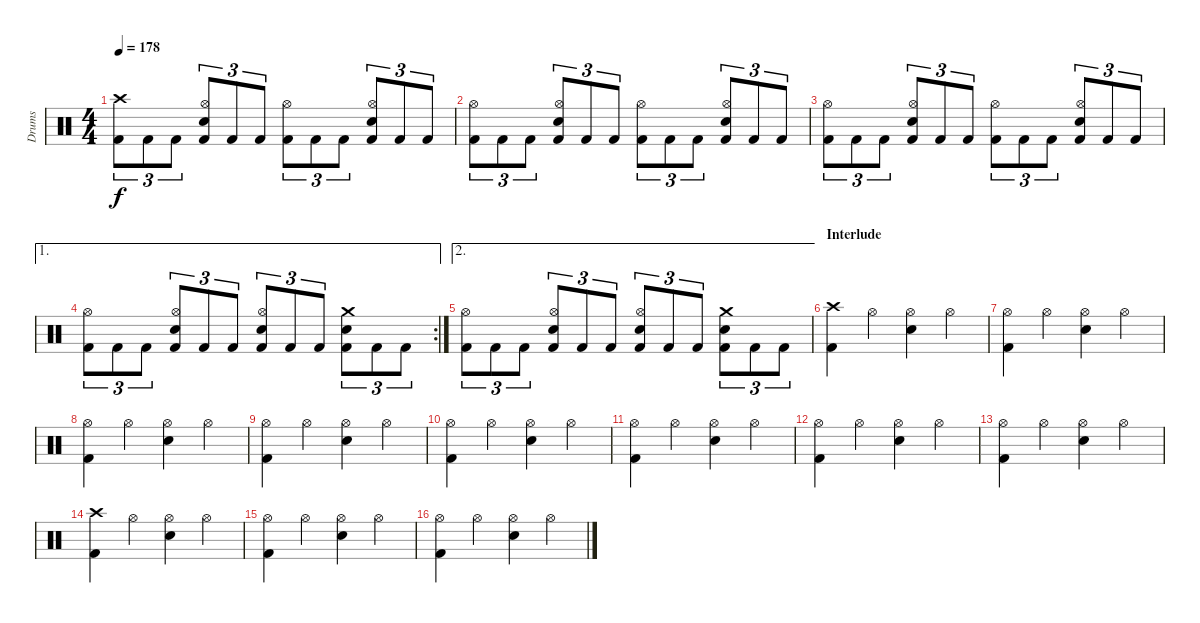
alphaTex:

\track ("Drums" "Drums") {instrument percussion}
\staff {score}
\articulation defaults
\ts (4 4)
\tempo 178
\clef neutral
\ks c
("Crash high (hit)" "Kick (hit) 2").8{tu (3 2) dy f} "Kick (hit) 2".8{tu (3 2)} "Kick (hit) 2".8{tu (3 2)} ("Hi-Hat (open)" "Electric Snare (hit)" "Kick (hit) 2").8{tu (3 2)} "Kick (hit) 2".8{tu (3 2)} "Kick (hit) 2".8{tu (3 2)} ("Hi-Hat (open)" "Kick (hit) 2").8{tu (3 2)} "Kick (hit) 2".8{tu (3 2)} "Kick (hit) 2".8{tu (3 2)} ("Hi-Hat (open)" "Electric Snare (hit)" "Kick (hit) 2").8{tu (3 2)} "Kick (hit) 2".8{tu (3 2)} "Kick (hit) 2".8{tu (3 2)} |
("Hi-Hat (open)" "Kick (hit) 2").8{tu (3 2)} "Kick (hit) 2".8{tu (3 2)} "Kick (hit) 2".8{tu (3 2)} ("Hi-Hat (open)" "Electric Snare (hit)" "Kick (hit) 2").8{tu (3 2)} "Kick (hit) 2".8{tu (3 2)} "Kick (hit) 2".8{tu (3 2)} ("Hi-Hat (open)" "Kick (hit) 2").8{tu (3 2)} "Kick (hit) 2".8{tu (3 2)} "Kick (hit) 2".8{tu (3 2)} ("Hi-Hat (open)" "Electric Snare (hit)" "Kick (hit) 2").8{tu (3 2)} "Kick (hit) 2".8{tu (3 2)} "Kick (hit) 2".8{tu (3 2)} |
("Hi-Hat (open)" "Kick (hit) 2").8{tu (3 2)} "Kick (hit) 2".8{tu (3 2)} "Kick (hit) 2".8{tu (3 2)} ("Hi-Hat (open)" "Electric Snare (hit)" "Kick (hit) 2").8{tu (3 2)} "Kick (hit) 2".8{tu (3 2)} "Kick (hit) 2".8{tu (3 2)} ("Hi-Hat (open)" "Kick (hit) 2").8{tu (3 2)} "Kick (hit) 2".8{tu (3 2)} "Kick (hit) 2".8{tu (3 2)} ("Hi-Hat (open)" "Electric Snare (hit)" "Kick (hit) 2").8{tu (3 2)} "Kick (hit) 2".8{tu (3 2)} "Kick (hit) 2".8{tu (3 2)} |
\ae 1
\rc 2
("Hi-Hat (open)" "Kick (hit) 2").8{tu (3 2)} "Kick (hit) 2".8{tu (3 2)} "Kick (hit) 2".8{tu (3 2)} ("Hi-Hat (open)" "Electric Snare (hit)" "Kick (hit) 2").8{tu (3 2)} "Kick (hit) 2".8{tu (3 2)} "Kick (hit) 2".8{tu (3 2)} ("Hi-Hat (open)" "Electric Snare (hit)" "Kick (hit) 2").8{tu (3 2)} "Kick (hit) 2".8{tu (3 2)} "Kick (hit) 2".8{tu (3 2)} ("Crash medium (hit)" "Electric Snare (hit)" "Kick (hit) 2").8{tu (3 2)} "Kick (hit) 2".8{tu (3 2)} "Kick (hit) 2".8{tu (3 2)} |
\ae 2
("Hi-Hat (open)" "Kick (hit) 2").8{tu (3 2)} "Kick (hit) 2".8{tu (3 2)} "Kick (hit) 2".8{tu (3 2)} ("Hi-Hat (open)" "Electric Snare (hit)" "Kick (hit) 2").8{tu (3 2)} "Kick (hit) 2".8{tu (3 2)} "Kick (hit) 2".8{tu (3 2)} ("Hi-Hat (open)" "Electric Snare (hit)" "Kick (hit) 2").8{tu (3 2)} "Kick (hit) 2".8{tu (3 2)} "Kick (hit) 2".8{tu (3 2)} ("Crash medium (hit)" "Electric Snare (hit)" "Kick (hit) 2").8{tu (3 2)} "Kick (hit) 2".8{tu (3 2)} "Kick (hit) 2".8{tu (3 2)} |
\section ("" "Interlude")
("Crash high (hit)" "Kick (hit) 2").4 "Hi-Hat (open)".4 ("Hi-Hat (open)" "Electric Snare (hit)").4 "Hi-Hat (open)".4 |
("Hi-Hat (open)" "Kick (hit) 2").4 "Hi-Hat (open)".4 ("Hi-Hat (open)" "Electric Snare (hit)").4 "Hi-Hat (open)".4 |
("Hi-Hat (open)" "Kick (hit) 2").4 "Hi-Hat (open)".4 ("Hi-Hat (open)" "Electric Snare (hit)").4 "Hi-Hat (open)".4 |
("Hi-Hat (open)" "Kick (hit) 2").4 "Hi-Hat (open)".4 ("Hi-Hat (open)" "Electric Snare (hit)").4 "Hi-Hat (open)".4 |
("Hi-Hat (open)" "Kick (hit) 2").4 "Hi-Hat (open)".4 ("Hi-Hat (open)" "Electric Snare (hit)").4 "Hi-Hat (open)".4 |
("Hi-Hat (open)" "Kick (hit) 2").4 "Hi-Hat (open)".4 ("Hi-Hat (open)" "Electric Snare (hit)").4 "Hi-Hat (open)".4 |
("Hi-Hat (open)" "Kick (hit) 2").4 "Hi-Hat (open)".4 ("Hi-Hat (open)" "Electric Snare (hit)").4 "Hi-Hat (open)".4 |
("Hi-Hat (open)" "Kick (hit) 2").4 "Hi-Hat (open)".4 ("Hi-Hat (open)" "Electric Snare (hit)").4 "Hi-Hat (open)".4 |
("Crash high (hit)" "Kick (hit) 2").4 "Hi-Hat (open)".4 ("Hi-Hat (open)" "Electric Snare (hit)").4 "Hi-Hat (open)".4 |
("Hi-Hat (open)" "Kick (hit) 2").4 "Hi-Hat (open)".4 ("Hi-Hat (open)" "Electric Snare (hit)").4 "Hi-Hat (open)".4 |
("Hi-Hat (open)" "Kick (hit) 2").4 "Hi-Hat (open)".4 ("Hi-Hat (open)" "Electric Snare (hit)").4 "Hi-Hat (open)".4
